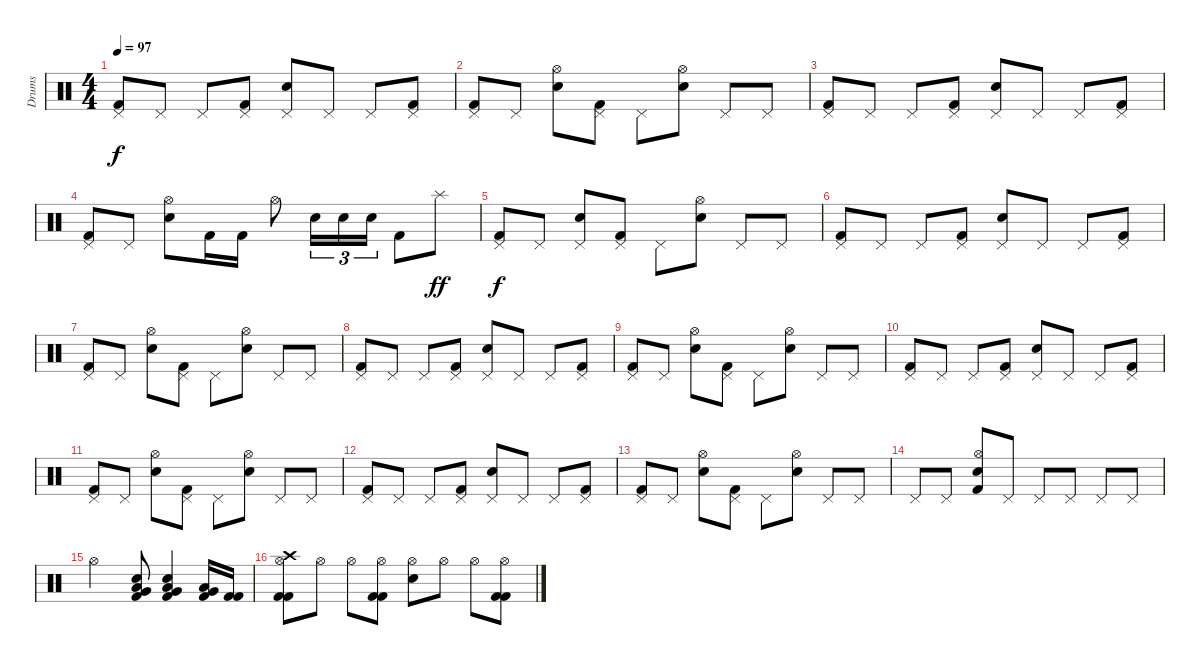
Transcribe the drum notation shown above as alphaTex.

\track ("Drums" "Drums") {instrument percussion}
\staff {score}
\articulation defaults
\ts (4 4)
\tempo 97
\clef neutral
\ks c
("Pedal Hi-Hat (hit)" "Kick (hit) 2").8{dy f} "Pedal Hi-Hat (hit)".8 "Pedal Hi-Hat (hit)".8 ("Pedal Hi-Hat (hit)" "Kick (hit) 2").8 ("Pedal Hi-Hat (hit)" "Electric Snare (hit)").8 "Pedal Hi-Hat (hit)".8 "Pedal Hi-Hat (hit)".8 ("Pedal Hi-Hat (hit)" "Kick (hit) 2").8 |
("Pedal Hi-Hat (hit)" "Kick (hit) 2").8 "Pedal Hi-Hat (hit)".8 ("Hi-Hat (open)" "Electric Snare (hit)").8 ("Pedal Hi-Hat (hit)" "Kick (hit) 2").8 "Pedal Hi-Hat (hit)".8 ("Hi-Hat (open)" "Electric Snare (hit)").8 "Pedal Hi-Hat (hit)".8 "Pedal Hi-Hat (hit)".8 |
("Pedal Hi-Hat (hit)" "Kick (hit) 2").8 "Pedal Hi-Hat (hit)".8 "Pedal Hi-Hat (hit)".8 ("Pedal Hi-Hat (hit)" "Kick (hit) 2").8 ("Pedal Hi-Hat (hit)" "Electric Snare (hit)").8 "Pedal Hi-Hat (hit)".8 "Pedal Hi-Hat (hit)".8 ("Pedal Hi-Hat (hit)" "Kick (hit) 2").8 |
("Pedal Hi-Hat (hit)" "Kick (hit) 2").8 "Pedal Hi-Hat (hit)".8 ("Hi-Hat (open)" "Electric Snare (hit)").8 "Kick (hit) 2".16 "Kick (hit) 2".16 "Hi-Hat (open)".8 "Snare (hit) 2".16{tu (3 2)} "Electric Snare (hit)".16{tu (3 2)} "Snare (hit) 2".16{tu (3 2)} "Kick (hit) 2".8 "Splash (hit)".8{dy ff} |
("Pedal Hi-Hat (hit)" "Kick (hit) 2").8{dy f} "Pedal Hi-Hat (hit)".8 ("Pedal Hi-Hat (hit)" "Electric Snare (hit)").8 ("Pedal Hi-Hat (hit)" "Kick (hit) 2").8 "Pedal Hi-Hat (hit)".8 ("Hi-Hat (open)" "Electric Snare (hit)").8 "Pedal Hi-Hat (hit)".8 "Pedal Hi-Hat (hit)".8 |
("Pedal Hi-Hat (hit)" "Kick (hit) 2").8 "Pedal Hi-Hat (hit)".8 "Pedal Hi-Hat (hit)".8 ("Pedal Hi-Hat (hit)" "Kick (hit) 2").8 ("Pedal Hi-Hat (hit)" "Electric Snare (hit)").8 "Pedal Hi-Hat (hit)".8 "Pedal Hi-Hat (hit)".8 ("Pedal Hi-Hat (hit)" "Kick (hit) 2").8 |
("Pedal Hi-Hat (hit)" "Kick (hit) 2").8 "Pedal Hi-Hat (hit)".8 ("Hi-Hat (open)" "Electric Snare (hit)").8 ("Pedal Hi-Hat (hit)" "Kick (hit) 2").8 "Pedal Hi-Hat (hit)".8 ("Hi-Hat (open)" "Electric Snare (hit)").8 "Pedal Hi-Hat (hit)".8 "Pedal Hi-Hat (hit)".8 |
("Pedal Hi-Hat (hit)" "Kick (hit) 2").8 "Pedal Hi-Hat (hit)".8 "Pedal Hi-Hat (hit)".8 ("Pedal Hi-Hat (hit)" "Kick (hit) 2").8 ("Pedal Hi-Hat (hit)" "Electric Snare (hit)").8 "Pedal Hi-Hat (hit)".8 "Pedal Hi-Hat (hit)".8 ("Pedal Hi-Hat (hit)" "Kick (hit) 2").8 |
("Pedal Hi-Hat (hit)" "Kick (hit) 2").8 "Pedal Hi-Hat (hit)".8 ("Hi-Hat (open)" "Electric Snare (hit)").8 ("Pedal Hi-Hat (hit)" "Kick (hit) 2").8 "Pedal Hi-Hat (hit)".8 ("Hi-Hat (open)" "Electric Snare (hit)").8 "Pedal Hi-Hat (hit)".8 "Pedal Hi-Hat (hit)".8 |
("Pedal Hi-Hat (hit)" "Kick (hit) 2").8 "Pedal Hi-Hat (hit)".8 "Pedal Hi-Hat (hit)".8 ("Pedal Hi-Hat (hit)" "Kick (hit) 2").8 ("Pedal Hi-Hat (hit)" "Electric Snare (hit)").8 "Pedal Hi-Hat (hit)".8 "Pedal Hi-Hat (hit)".8 ("Pedal Hi-Hat (hit)" "Kick (hit) 2").8 |
("Pedal Hi-Hat (hit)" "Kick (hit) 2").8 "Pedal Hi-Hat (hit)".8 ("Hi-Hat (open)" "Electric Snare (hit)").8 ("Pedal Hi-Hat (hit)" "Kick (hit) 2").8 "Pedal Hi-Hat (hit)".8 ("Hi-Hat (open)" "Electric Snare (hit)").8 "Pedal Hi-Hat (hit)".8 "Pedal Hi-Hat (hit)".8 |
("Pedal Hi-Hat (hit)" "Kick (hit) 2").8 "Pedal Hi-Hat (hit)".8 "Pedal Hi-Hat (hit)".8 ("Pedal Hi-Hat (hit)" "Kick (hit) 2").8 ("Pedal Hi-Hat (hit)" "Electric Snare (hit)").8 "Pedal Hi-Hat (hit)".8 "Pedal Hi-Hat (hit)".8 ("Pedal Hi-Hat (hit)" "Kick (hit) 2").8 |
("Pedal Hi-Hat (hit)" "Kick (hit) 2").8 "Pedal Hi-Hat (hit)".8 ("Hi-Hat (open)" "Electric Snare (hit)").8 ("Pedal Hi-Hat (hit)" "Kick (hit) 2").8 "Pedal Hi-Hat (hit)".8 ("Hi-Hat (open)" "Electric Snare (hit)").8 "Pedal Hi-Hat (hit)".8 "Pedal Hi-Hat (hit)".8 |
"Pedal Hi-Hat (hit)".8 "Pedal Hi-Hat (hit)".8 ("Hi-Hat (open)" "Snare (hit) 2" "Kick (hit) 2").8 "Pedal Hi-Hat (hit)".8 "Pedal Hi-Hat (hit)".8 "Pedal Hi-Hat (hit)".8 "Pedal Hi-Hat (hit)".8 "Pedal Hi-Hat (hit)".8 |
"Hi-Hat (open)".2 ("Low Floor Tom (hit)" "Very Low Tom (hit)" "Snare (hit) 2" "Kick (hit) 2").8 ("Low Floor Tom (hit)" "Very Low Tom (hit)" "Electric Snare (hit)" "Kick (hit) 2").4 ("Low Floor Tom (hit)" "Very Low Tom (hit)" "Kick (hit) 2").16 ("Kick (hit) 2" "Kick (hit) 2").16 |
("Hi-Hat (open)" "Crash high (hit)" "Kick (hit) 2" "Kick (hit) 2").8 "Hi-Hat (open)".8 "Hi-Hat (open)".8 ("Hi-Hat (open)" "Kick (hit) 2" "Kick (hit) 2").8 ("Hi-Hat (open)" "Electric Snare (hit)").8 "Hi-Hat (open)".8 "Hi-Hat (open)".8 ("Hi-Hat (open)" "Kick (hit) 2" "Kick (hit) 2").8
